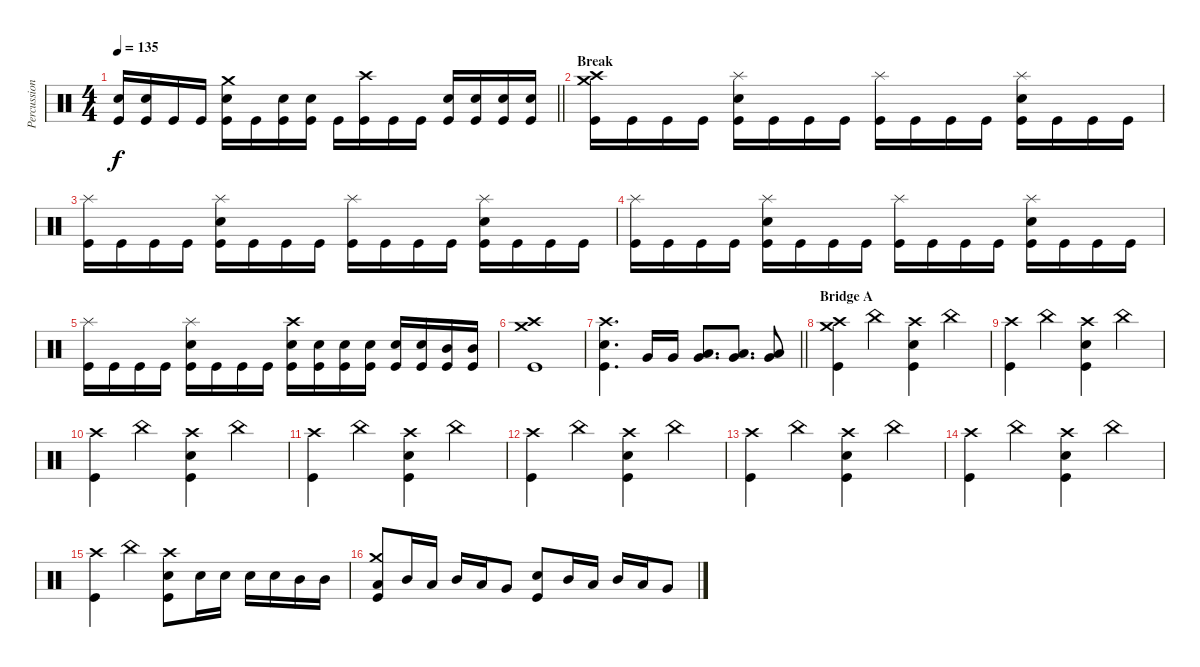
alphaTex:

\track ("Percussion" "Percussion") {instrument percussion}
\staff {score}
\articulation defaults
\ts (4 4)
\tempo 135
\clef neutral
\barLineRight lightlight
\ks c
("Electric Snare (hit)" "Kick (hit)").16{dy f} ("Electric Snare (hit)" "Kick (hit)").16 "Kick (hit)".16 "Kick (hit)".16 ("Crash medium (hit)" "Electric Snare (hit)" "Kick (hit)").16 "Kick (hit)".16 ("Electric Snare (hit)" "Kick (hit)").16 ("Electric Snare (hit)" "Kick (hit)").16 "Kick (hit)".16 ("Crash high (hit)" "Kick (hit)").16 "Kick (hit)".16 "Kick (hit)".16 ("Electric Snare (hit)" "Kick (hit)").16 ("Electric Snare (hit)" "Kick (hit)").16 ("Electric Snare (hit)" "Kick (hit)").16 ("Electric Snare (hit)" "Kick (hit)").16 |
\section ("" "Break")
("Crash medium (hit)" "Crash high (hit)" "Kick (hit)").16 "Kick (hit)".16 "Kick (hit)".16 "Kick (hit)".16 ("Splash (hit)" "Electric Snare (hit)" "Kick (hit)").16 "Kick (hit)".16 "Kick (hit)".16 "Kick (hit)".16 ("Splash (hit)" "Kick (hit)").16 "Kick (hit)".16 "Kick (hit)".16 "Kick (hit)".16 ("Splash (hit)" "Electric Snare (hit)" "Kick (hit)").16 "Kick (hit)".16 "Kick (hit)".16 "Kick (hit)".16 |
("Splash (hit)" "Kick (hit)").16 "Kick (hit)".16 "Kick (hit)".16 "Kick (hit)".16 ("Splash (hit)" "Electric Snare (hit)" "Kick (hit)").16 "Kick (hit)".16 "Kick (hit)".16 "Kick (hit)".16 ("Splash (hit)" "Kick (hit)").16 "Kick (hit)".16 "Kick (hit)".16 "Kick (hit)".16 ("Splash (hit)" "Electric Snare (hit)" "Kick (hit)").16 "Kick (hit)".16 "Kick (hit)".16 "Kick (hit)".16 |
("Splash (hit)" "Kick (hit)").16 "Kick (hit)".16 "Kick (hit)".16 "Kick (hit)".16 ("Splash (hit)" "Electric Snare (hit)" "Kick (hit)").16 "Kick (hit)".16 "Kick (hit)".16 "Kick (hit)".16 ("Splash (hit)" "Kick (hit)").16 "Kick (hit)".16 "Kick (hit)".16 "Kick (hit)".16 ("Splash (hit)" "Electric Snare (hit)" "Kick (hit)").16 "Kick (hit)".16 "Kick (hit)".16 "Kick (hit)".16 |
("Splash (hit)" "Kick (hit)").16 "Kick (hit)".16 "Kick (hit)".16 "Kick (hit)".16 ("Splash (hit)" "Electric Snare (hit)" "Kick (hit)").16 "Kick (hit)".16 "Kick (hit)".16 "Kick (hit)".16 ("Crash high (hit)" "Electric Snare (hit)" "Kick (hit)").16 ("Electric Snare (hit)" "Kick (hit)").16 ("Electric Snare (hit)" "Kick (hit)").16 ("Electric Snare (hit)" "Kick (hit)").16 ("Electric Snare (hit)" "Kick (hit)").16 ("Electric Snare (hit)" "Kick (hit)").16 ("Mid Tom (hit)" "Kick (hit)").16 ("Mid Tom (hit)" "Kick (hit)").16 |
("Crash high (hit)" "Crash medium (hit)" "Kick (hit)").1 |
\barLineRight lightlight
("Crash high (hit)" "Electric Snare (hit)" "Kick (hit)").4{d} "Very Low Tom (hit)".16 "Very Low Tom (hit)".16 ("Low Tom (hit)" "Very Low Tom (hit)").8{d} ("Low Tom (hit)" "Very Low Tom (hit)").8{d} ("Low Tom (hit)" "Very Low Tom (hit)").8 |
\section ("" "Bridge A")
("Crash high (hit)" "Crash medium (hit)" "Kick (hit)").4 "China (hit)".4 ("Crash high (hit)" "Electric Snare (hit)" "Kick (hit)").4 "China (hit)".4 |
("Crash high (hit)" "Kick (hit)").4 "China (hit)".4 ("Crash high (hit)" "Electric Snare (hit)" "Kick (hit)").4 "China (hit)".4 |
("Crash high (hit)" "Kick (hit)").4 "China (hit)".4 ("Crash high (hit)" "Electric Snare (hit)" "Kick (hit)").4 "China (hit)".4 |
("Crash high (hit)" "Kick (hit)").4 "China (hit)".4 ("Crash high (hit)" "Electric Snare (hit)" "Kick (hit)").4 "China (hit)".4 |
("Crash high (hit)" "Kick (hit)").4 "China (hit)".4 ("Crash high (hit)" "Electric Snare (hit)" "Kick (hit)").4 "China (hit)".4 |
("Crash high (hit)" "Kick (hit)").4 "China (hit)".4 ("Crash high (hit)" "Electric Snare (hit)" "Kick (hit)").4 "China (hit)".4 |
("Crash high (hit)" "Kick (hit)").4 "China (hit)".4 ("Crash high (hit)" "Electric Snare (hit)" "Kick (hit)").4 "China (hit)".4 |
("Crash high (hit)" "Kick (hit)").4 "China (hit)".4 ("Crash high (hit)" "Electric Snare (hit)" "Kick (hit)").8 "Electric Snare (hit)".16 "Electric Snare (hit)".16 "Electric Snare (hit)".16 "Electric Snare (hit)".16 "Mid Tom (hit)".16 "Mid Tom (hit)".16 |
("Crash medium (hit)" "Low Tom (hit)" "Kick (hit)").8 "Mid Tom (hit)".16 "Low Tom (hit)".16 "Mid Tom (hit)".16 "Low Tom (hit)".16 "Very Low Tom (hit)".8 ("Electric Snare (hit)" "Kick (hit)").8 "Mid Tom (hit)".16 "Low Tom (hit)".16 "Mid Tom (hit)".16 "Low Tom (hit)".16 "Very Low Tom (hit)".8
